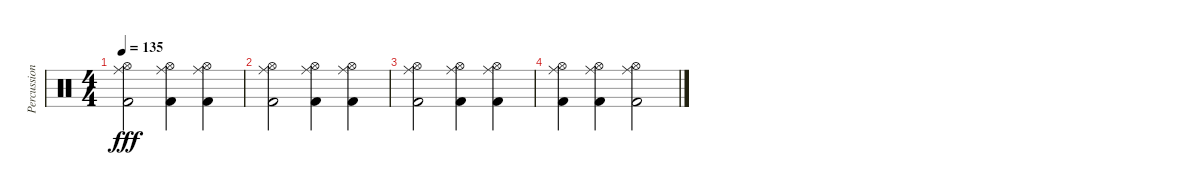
\track ("Percussion" "Percussion") {instrument percussion}
\staff {score}
\articulation defaults
\ts (4 4)
\tempo 135
\clef neutral
\ks c
("Hi-Hat (open)" "Kick (hit) 2" "Ride (middle)").2{dy fff} ("Hi-Hat (open)" "Kick (hit) 2" "Ride (middle)").4 ("Hi-Hat (open)" "Kick (hit) 2" "Ride (middle)").4 |
("Hi-Hat (open)" "Kick (hit) 2" "Ride (middle)").2 ("Hi-Hat (open)" "Kick (hit) 2" "Ride (middle)").4 ("Hi-Hat (open)" "Kick (hit) 2" "Ride (middle)").4 |
("Hi-Hat (open)" "Kick (hit) 2" "Ride (middle)").2 ("Hi-Hat (open)" "Kick (hit) 2" "Ride (middle)").4 ("Hi-Hat (open)" "Kick (hit) 2" "Ride (middle)").4 |
("Hi-Hat (open)" "Kick (hit) 2" "Ride (middle)").4 ("Hi-Hat (open)" "Kick (hit) 2" "Ride (middle)").4 ("Hi-Hat (open)" "Kick (hit) 2" "Ride (middle)").2
